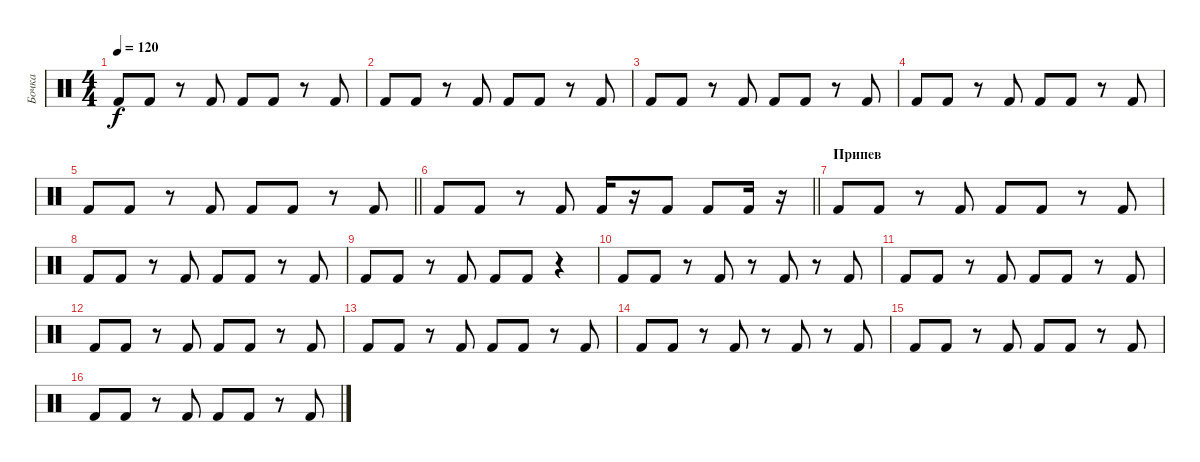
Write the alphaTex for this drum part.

\track ("Бочка" "Бочка") {instrument percussion}
\staff {score}
\articulation defaults
\ts (4 4)
\tempo 120
\clef neutral
\ks c "Kick (hit) 2".8{dy f} "Kick (hit) 2".8
r.8 "Kick (hit) 2".8 "Kick (hit) 2".8 "Kick (hit) 2".8 r.8 "Kick (hit) 2".8 |
"Kick (hit) 2".8 "Kick (hit) 2".8 r.8 "Kick (hit) 2".8 "Kick (hit) 2".8 "Kick (hit) 2".8 r.8 "Kick (hit) 2".8 |
"Kick (hit) 2".8 "Kick (hit) 2".8 r.8 "Kick (hit) 2".8 "Kick (hit) 2".8 "Kick (hit) 2".8 r.8 "Kick (hit) 2".8 |
"Kick (hit) 2".8 "Kick (hit) 2".8 r.8 "Kick (hit) 2".8 "Kick (hit) 2".8 "Kick (hit) 2".8 r.8 "Kick (hit) 2".8 |
\barLineRight lightlight "Kick (hit) 2".8 "Kick (hit) 2".8
r.8 "Kick (hit) 2".8 "Kick (hit) 2".8 "Kick (hit) 2".8 r.8 "Kick (hit) 2".8 |
\barLineRight lightlight "Kick (hit) 2".8 "Kick (hit) 2".8
r.8 "Kick (hit) 2".8 "Kick (hit) 2".16 r.16 "Kick (hit) 2".8 "Kick (hit) 2".8 "Kick (hit) 2".16 r.16 |
\section ("" "Припев ")
"Kick (hit) 2".8 "Kick (hit) 2".8 r.8 "Kick (hit) 2".8 "Kick (hit) 2".8 "Kick (hit) 2".8 r.8 "Kick (hit) 2".8 |
"Kick (hit) 2".8 "Kick (hit) 2".8 r.8 "Kick (hit) 2".8 "Kick (hit) 2".8 "Kick (hit) 2".8 r.8 "Kick (hit) 2".8 |
"Kick (hit) 2".8 "Kick (hit) 2".8 r.8 "Kick (hit) 2".8 "Kick (hit) 2".8 "Kick (hit) 2".8 r.4 |
"Kick (hit) 2".8 "Kick (hit) 2".8 r.8 "Kick (hit) 2".8 r.8 "Kick (hit) 2".8 r.8 "Kick (hit) 2".8 |
"Kick (hit) 2".8 "Kick (hit) 2".8 r.8 "Kick (hit) 2".8 "Kick (hit) 2".8 "Kick (hit) 2".8 r.8 "Kick (hit) 2".8 |
"Kick (hit) 2".8 "Kick (hit) 2".8 r.8 "Kick (hit) 2".8 "Kick (hit) 2".8 "Kick (hit) 2".8 r.8 "Kick (hit) 2".8 |
"Kick (hit) 2".8 "Kick (hit) 2".8 r.8 "Kick (hit) 2".8 "Kick (hit) 2".8 "Kick (hit) 2".8 r.8 "Kick (hit) 2".8 |
"Kick (hit) 2".8 "Kick (hit) 2".8 r.8 "Kick (hit) 2".8 r.8 "Kick (hit) 2".8 r.8 "Kick (hit) 2".8 |
"Kick (hit) 2".8 "Kick (hit) 2".8 r.8 "Kick (hit) 2".8 "Kick (hit) 2".8 "Kick (hit) 2".8 r.8 "Kick (hit) 2".8 |
"Kick (hit) 2".8 "Kick (hit) 2".8 r.8 "Kick (hit) 2".8 "Kick (hit) 2".8 "Kick (hit) 2".8 r.8 "Kick (hit) 2".8
